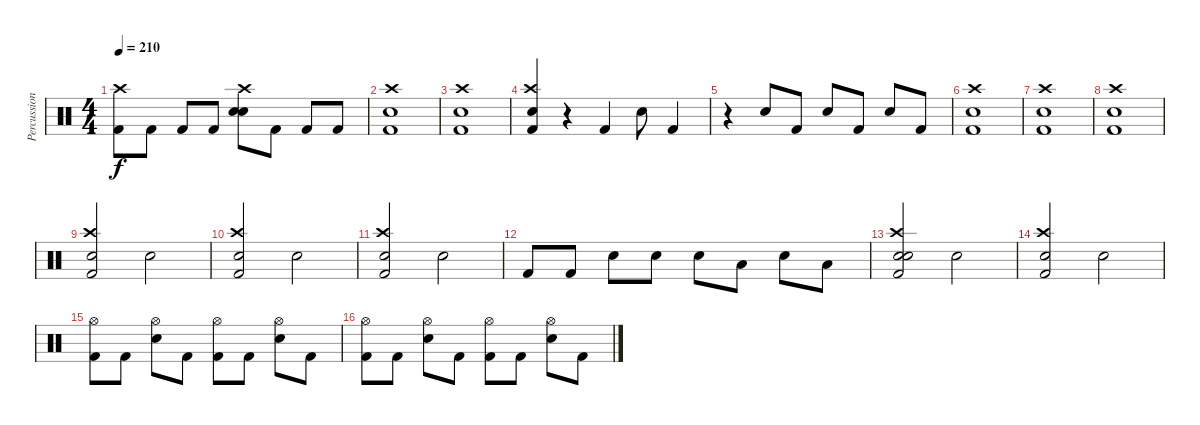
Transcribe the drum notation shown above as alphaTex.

\track ("Percussion" "Percussion") {instrument percussion}
\staff {score}
\articulation defaults
\ts (4 4)
\tempo 210
\clef neutral
\ks c
("Kick (hit) 2" "Crash high (hit)").8{dy f} "Kick (hit) 2".8 "Kick (hit) 2".8 "Kick (hit) 2".8 ("Snare (hit) 2" "Electric Snare (hit)" "Crash high (hit)").8 "Kick (hit) 2".8 "Kick (hit) 2".8 "Kick (hit) 2".8 |
("Kick (hit) 2" "Snare (hit) 2" "Crash high (hit)").1 |
("Kick (hit) 2" "Snare (hit) 2" "Crash high (hit)").1 |
("Kick (hit) 2" "Snare (hit) 2" "Crash high (hit)").4 r.4 "Kick (hit) 2".4 "Snare (hit) 2".8 "Kick (hit) 2".4 |
r.4 "Snare (hit) 2".8 "Kick (hit) 2".8 "Snare (hit) 2".8 "Kick (hit) 2".8 "Snare (hit) 2".8 "Kick (hit) 2".8 |
("Kick (hit) 2" "Snare (hit) 2" "Crash high (hit)").1 |
("Kick (hit) 2" "Snare (hit) 2" "Crash high (hit)").1 |
("Kick (hit) 2" "Snare (hit) 2" "Crash high (hit)").1 |
("Kick (hit) 2" "Snare (hit) 2" "Crash high (hit)").2 "Snare (hit) 2".2 |
("Kick (hit) 2" "Snare (hit) 2" "Crash high (hit)").2 "Snare (hit) 2".2 |
("Kick (hit) 2" "Snare (hit) 2" "Crash high (hit)").2 "Snare (hit) 2".2 |
"Kick (hit) 2".8 "Kick (hit) 2".8 "Snare (hit) 2".8 "Snare (hit) 2".8 "Electric Snare (hit)".8 "Low Floor Tom (hit)".8 "Electric Snare (hit)".8 "Low Floor Tom (hit)".8 |
("Kick (hit) 2" "Snare (hit) 2" "Snare (hit) 2" "Crash high (hit)").2 "Snare (hit) 2".2 |
("Kick (hit) 2" "Snare (hit) 2" "Crash high (hit)").2 "Snare (hit) 2".2 |
("Kick (hit) 2" "Hi-Hat (open)").8 "Kick (hit) 2".8 ("Snare (hit) 2" "Hi-Hat (open)").8 "Kick (hit) 2".8 ("Kick (hit) 2" "Hi-Hat (open)").8 "Kick (hit) 2".8 ("Snare (hit) 2" "Hi-Hat (open)").8 "Kick (hit) 2".8 |
("Kick (hit) 2" "Hi-Hat (open)").8 "Kick (hit) 2".8 ("Snare (hit) 2" "Hi-Hat (open)").8 "Kick (hit) 2".8 ("Kick (hit) 2" "Hi-Hat (open)").8 "Kick (hit) 2".8 ("Snare (hit) 2" "Hi-Hat (open)").8 "Kick (hit) 2".8
